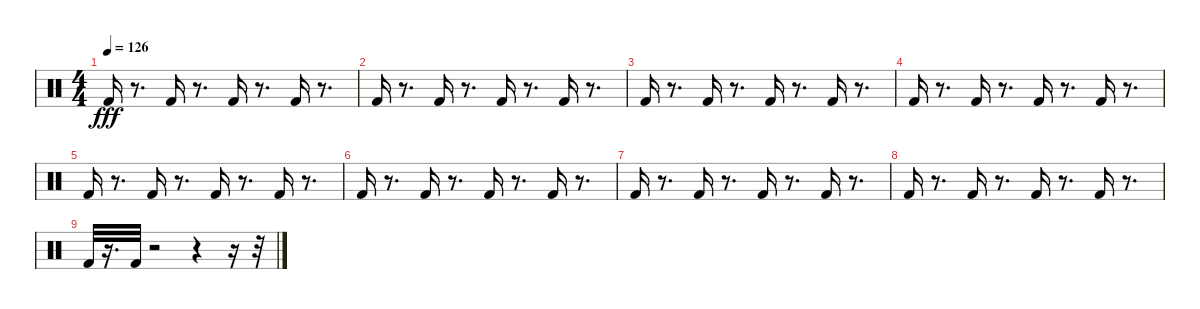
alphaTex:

\track "" {instrument percussion}
\staff {score}
\articulation defaults
\ts (4 4)
\tempo 126
\clef neutral
\ks c "Kick (hit) 2".16{dy fff}
r.8{d} "Kick (hit) 2".16 r.8{d} "Kick (hit) 2".16 r.8{d} "Kick (hit) 2".16 r.8{d} |
"Kick (hit) 2".16 r.8{d} "Kick (hit) 2".16 r.8{d} "Kick (hit) 2".16 r.8{d} "Kick (hit) 2".16 r.8{d} |
"Kick (hit) 2".16 r.8{d} "Kick (hit) 2".16 r.8{d} "Kick (hit) 2".16 r.8{d} "Kick (hit) 2".16 r.8{d} |
"Kick (hit) 2".16 r.8{d} "Kick (hit) 2".16 r.8{d} "Kick (hit) 2".16 r.8{d} "Kick (hit) 2".16 r.8{d} |
"Kick (hit) 2".16 r.8{d} "Kick (hit) 2".16 r.8{d} "Kick (hit) 2".16 r.8{d} "Kick (hit) 2".16 r.8{d} |
"Kick (hit) 2".16 r.8{d} "Kick (hit) 2".16 r.8{d} "Kick (hit) 2".16 r.8{d} "Kick (hit) 2".16 r.8{d} |
"Kick (hit) 2".16 r.8{d} "Kick (hit) 2".16 r.8{d} "Kick (hit) 2".16 r.8{d} "Kick (hit) 2".16 r.8{d} |
"Kick (hit) 2".16 r.8{d} "Kick (hit) 2".16 r.8{d} "Kick (hit) 2".16 r.8{d} "Kick (hit) 2".16 r.8{d} |
"Kick (hit) 2".32 r.16{d} "Kick (hit) 2".32 r.2 r.4 r.16 r.32
